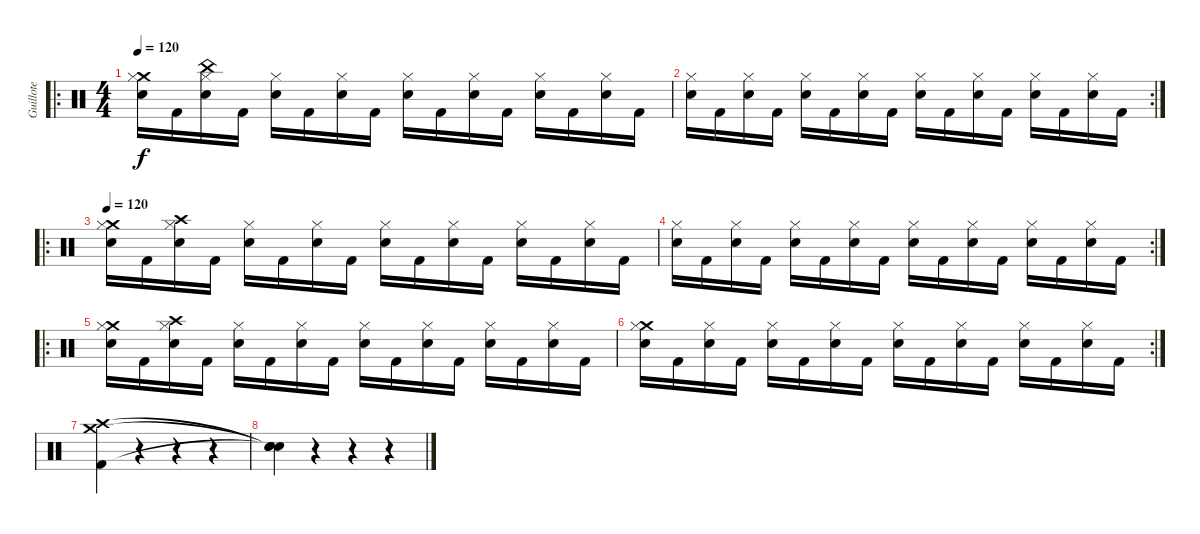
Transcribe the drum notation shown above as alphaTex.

\track ("Guillote" "Guillote") {instrument percussion}
\staff {score}
\articulation defaults
\ro
\ts (4 4)
\tempo 120
\clef neutral
\ks c
("Electric Snare (hit)" "Crash medium (hit)" "Hi-Hat (closed)").16{dy f} "Kick (hit) 2".16 ("Hi-Hat (closed)" "Electric Snare (hit)" "China (hit)").16 "Kick (hit) 2".16 ("Electric Snare (hit)" "Hi-Hat (closed)").16 "Kick (hit) 2".16 ("Electric Snare (hit)" "Hi-Hat (closed)").16 "Kick (hit) 2".16 ("Electric Snare (hit)" "Hi-Hat (closed)").16 "Kick (hit) 2".16 ("Hi-Hat (closed)" "Electric Snare (hit)").16 "Kick (hit) 2".16 ("Hi-Hat (closed)" "Electric Snare (hit)").16 "Kick (hit) 2".16 ("Hi-Hat (closed)" "Electric Snare (hit)").16 "Kick (hit) 2".16 |
\rc 2
("Electric Snare (hit)" "Hi-Hat (closed)").16 "Kick (hit) 2".16 ("Hi-Hat (closed)" "Electric Snare (hit)").16 "Kick (hit) 2".16 ("Electric Snare (hit)" "Hi-Hat (closed)").16 "Kick (hit) 2".16 ("Electric Snare (hit)" "Hi-Hat (closed)").16 "Kick (hit) 2".16 ("Electric Snare (hit)" "Hi-Hat (closed)").16 "Kick (hit) 2".16 ("Hi-Hat (closed)" "Electric Snare (hit)").16 "Kick (hit) 2".16 ("Hi-Hat (closed)" "Electric Snare (hit)").16 "Kick (hit) 2".16 ("Hi-Hat (closed)" "Electric Snare (hit)").16 "Kick (hit) 2".16 |
\ro
\tempo 120
("Electric Snare (hit)" "Crash medium (hit)" "Hi-Hat (closed)").16 "Kick (hit) 2".16 ("Hi-Hat (closed)" "Electric Snare (hit)" "Crash high (hit)").16 "Kick (hit) 2".16 ("Electric Snare (hit)" "Hi-Hat (closed)").16 "Kick (hit) 2".16 ("Electric Snare (hit)" "Hi-Hat (closed)").16 "Kick (hit) 2".16 ("Electric Snare (hit)" "Hi-Hat (closed)").16 "Kick (hit) 2".16 ("Hi-Hat (closed)" "Electric Snare (hit)").16 "Kick (hit) 2".16 ("Hi-Hat (closed)" "Electric Snare (hit)").16 "Kick (hit) 2".16 ("Hi-Hat (closed)" "Electric Snare (hit)").16 "Kick (hit) 2".16 |
\rc 2
("Electric Snare (hit)" "Hi-Hat (closed)").16 "Kick (hit) 2".16 ("Hi-Hat (closed)" "Electric Snare (hit)").16 "Kick (hit) 2".16 ("Electric Snare (hit)" "Hi-Hat (closed)").16 "Kick (hit) 2".16 ("Electric Snare (hit)" "Hi-Hat (closed)").16 "Kick (hit) 2".16 ("Electric Snare (hit)" "Hi-Hat (closed)").16 "Kick (hit) 2".16 ("Hi-Hat (closed)" "Electric Snare (hit)").16 "Kick (hit) 2".16 ("Hi-Hat (closed)" "Electric Snare (hit)").16 "Kick (hit) 2".16 ("Hi-Hat (closed)" "Electric Snare (hit)").16 "Kick (hit) 2".16 |
\ro
("Electric Snare (hit)" "Crash medium (hit)" "Hi-Hat (closed)").16 "Kick (hit) 2".16 ("Hi-Hat (closed)" "Electric Snare (hit)" "Crash high (hit)").16 "Kick (hit) 2".16 ("Electric Snare (hit)" "Hi-Hat (closed)").16 "Kick (hit) 2".16 ("Electric Snare (hit)" "Hi-Hat (closed)").16 "Kick (hit) 2".16 ("Electric Snare (hit)" "Hi-Hat (closed)").16 "Kick (hit) 2".16 ("Hi-Hat (closed)" "Electric Snare (hit)").16 "Kick (hit) 2".16 ("Hi-Hat (closed)" "Electric Snare (hit)").16 "Kick (hit) 2".16 ("Hi-Hat (closed)" "Electric Snare (hit)").16 "Kick (hit) 2".16 |
\rc 2
("Electric Snare (hit)" "Crash medium (hit)" "Hi-Hat (closed)").16 "Kick (hit) 2".16 ("Hi-Hat (closed)" "Electric Snare (hit)").16 "Kick (hit) 2".16 ("Electric Snare (hit)" "Hi-Hat (closed)").16 "Kick (hit) 2".16 ("Electric Snare (hit)" "Hi-Hat (closed)").16 "Kick (hit) 2".16 ("Electric Snare (hit)" "Hi-Hat (closed)").16 "Kick (hit) 2".16 ("Hi-Hat (closed)" "Electric Snare (hit)").16 "Kick (hit) 2".16 ("Hi-Hat (closed)" "Electric Snare (hit)").16 "Kick (hit) 2".16 ("Hi-Hat (closed)" "Electric Snare (hit)").16 "Kick (hit) 2".16 |
("Crash medium (hit)" "Crash high (hit)" "Kick (hit) 2").4 r.4 r.4 r.4 |
("Snare (hit)"{t} "Snare (hit)"{t} "Snare (hit)"{t}).4 r.4 r.4 r.4
